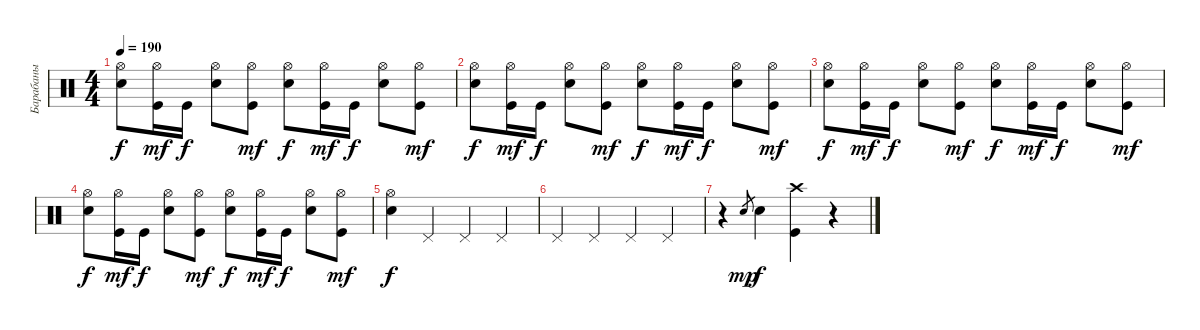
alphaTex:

\track ("Барабаны" "Барабаны") {instrument percussion}
\staff {score}
\articulation defaults
\ts (4 4)
\tempo 190
\clef neutral
\ks c
("Hi-Hat (open)" "Electric Snare (hit)").8{dy f} ("Hi-Hat (open)" "Kick (hit)").16{dy mf} "Kick (hit)".16{dy f} ("Hi-Hat (open)" "Electric Snare (hit)").8 ("Hi-Hat (open)" "Kick (hit)").8{dy mf} ("Hi-Hat (open)" "Electric Snare (hit)").8{dy f} ("Hi-Hat (open)" "Kick (hit)").16{dy mf} "Kick (hit)".16{dy f} ("Hi-Hat (open)" "Electric Snare (hit)").8 ("Hi-Hat (open)" "Kick (hit)").8{dy mf} |
("Hi-Hat (open)" "Electric Snare (hit)").8{dy f} ("Hi-Hat (open)" "Kick (hit)").16{dy mf} "Kick (hit)".16{dy f} ("Hi-Hat (open)" "Electric Snare (hit)").8 ("Hi-Hat (open)" "Kick (hit)").8{dy mf} ("Hi-Hat (open)" "Electric Snare (hit)").8{dy f} ("Hi-Hat (open)" "Kick (hit)").16{dy mf} "Kick (hit)".16{dy f} ("Hi-Hat (open)" "Electric Snare (hit)").8 ("Hi-Hat (open)" "Kick (hit)").8{dy mf} |
("Hi-Hat (open)" "Electric Snare (hit)").8{dy f} ("Hi-Hat (open)" "Kick (hit)").16{dy mf} "Kick (hit)".16{dy f} ("Hi-Hat (open)" "Electric Snare (hit)").8 ("Hi-Hat (open)" "Kick (hit)").8{dy mf} ("Hi-Hat (open)" "Electric Snare (hit)").8{dy f} ("Hi-Hat (open)" "Kick (hit)").16{dy mf} "Kick (hit)".16{dy f} ("Hi-Hat (open)" "Electric Snare (hit)").8 ("Hi-Hat (open)" "Kick (hit)").8{dy mf} |
("Hi-Hat (open)" "Electric Snare (hit)").8{dy f} ("Hi-Hat (open)" "Kick (hit)").16{dy mf} "Kick (hit)".16{dy f} ("Hi-Hat (open)" "Electric Snare (hit)").8 ("Hi-Hat (open)" "Kick (hit)").8{dy mf} ("Hi-Hat (open)" "Electric Snare (hit)").8{dy f} ("Hi-Hat (open)" "Kick (hit)").16{dy mf} "Kick (hit)".16{dy f} ("Hi-Hat (open)" "Electric Snare (hit)").8 ("Hi-Hat (open)" "Kick (hit)").8{dy mf} |
("Hi-Hat (open)" "Electric Snare (hit)").4{dy f} "Pedal Hi-Hat (hit)".4 "Pedal Hi-Hat (hit)".4 "Pedal Hi-Hat (hit)".4 |
"Pedal Hi-Hat (hit)".4 "Pedal Hi-Hat (hit)".4 "Pedal Hi-Hat (hit)".4 "Pedal Hi-Hat (hit)".4 |
r.4 "Electric Snare (hit)".8{gr dy mp} "Electric Snare (hit)".4{dy f} ("Crash high (hit)" "Kick (hit)").4 r.4
